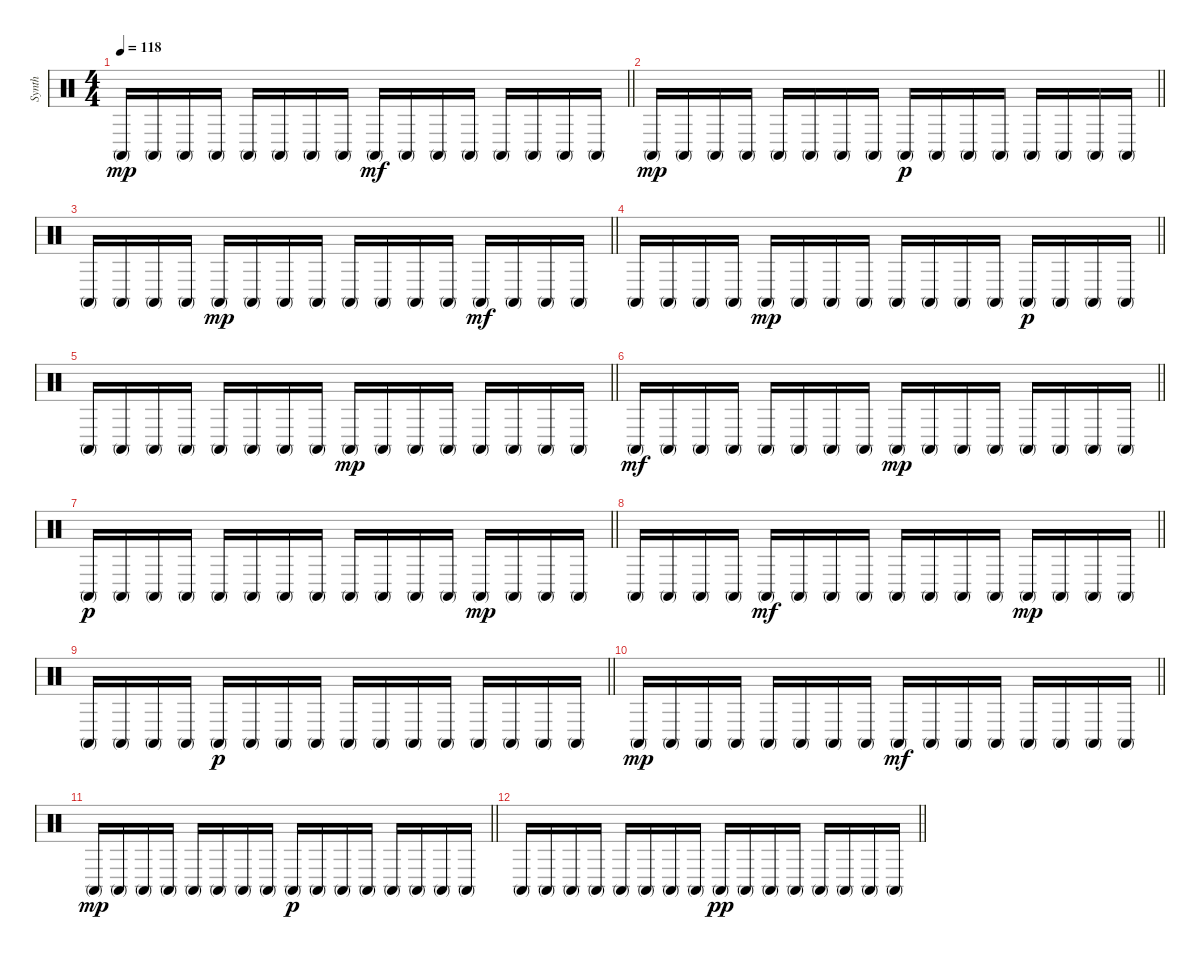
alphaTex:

\track ("Synth" "Synth") {instrument percussion}
\staff {score}
\articulation defaults
\ts (4 4)
\tempo 118
\clef neutral
\barLineRight lightlight
\ks c "Conga high (mute)".16{dy mp} "Conga high (mute)".16 "Conga high (mute)".16 "Conga high (mute)".16 "Conga high (mute)".16 "Conga high (mute)".16 "Conga high (mute)".16 "Conga high (mute)".16 "Conga high (mute)".16{dy mf} "Conga high (mute)".16 "Conga high (mute)".16 "Conga high (mute)".16 "Conga high (mute)".16 "Conga high (mute)".16 "Conga high (mute)".16 "Conga high (mute)".16
|
\barLineRight lightlight "Conga high (mute)".16{dy mp} "Conga high (mute)".16 "Conga high (mute)".16 "Conga high (mute)".16 "Conga high (mute)".16 "Conga high (mute)".16 "Conga high (mute)".16 "Conga high (mute)".16 "Conga high (mute)".16{dy p} "Conga high (mute)".16 "Conga high (mute)".16 "Conga high (mute)".16 "Conga high (mute)".16 "Conga high (mute)".16 "Conga high (mute)".16 "Conga high (mute)".16
|
\barLineRight lightlight "Conga high (mute)".16 "Conga high (mute)".16 "Conga high (mute)".16 "Conga high (mute)".16 "Conga high (mute)".16{dy mp} "Conga high (mute)".16 "Conga high (mute)".16 "Conga high (mute)".16 "Conga high (mute)".16 "Conga high (mute)".16 "Conga high (mute)".16 "Conga high (mute)".16 "Conga high (mute)".16{dy mf} "Conga high (mute)".16 "Conga high (mute)".16 "Conga high (mute)".16
|
\barLineRight lightlight "Conga high (mute)".16 "Conga high (mute)".16 "Conga high (mute)".16 "Conga high (mute)".16 "Conga high (mute)".16{dy mp} "Conga high (mute)".16 "Conga high (mute)".16 "Conga high (mute)".16 "Conga high (mute)".16 "Conga high (mute)".16 "Conga high (mute)".16 "Conga high (mute)".16 "Conga high (mute)".16{dy p} "Conga high (mute)".16 "Conga high (mute)".16 "Conga high (mute)".16
|
\barLineRight lightlight "Conga high (mute)".16 "Conga high (mute)".16 "Conga high (mute)".16 "Conga high (mute)".16 "Conga high (mute)".16 "Conga high (mute)".16 "Conga high (mute)".16 "Conga high (mute)".16 "Conga high (mute)".16{dy mp} "Conga high (mute)".16 "Conga high (mute)".16 "Conga high (mute)".16 "Conga high (mute)".16 "Conga high (mute)".16 "Conga high (mute)".16 "Conga high (mute)".16
|
\barLineRight lightlight "Conga high (mute)".16{dy mf} "Conga high (mute)".16 "Conga high (mute)".16 "Conga high (mute)".16 "Conga high (mute)".16 "Conga high (mute)".16 "Conga high (mute)".16 "Conga high (mute)".16 "Conga high (mute)".16{dy mp} "Conga high (mute)".16 "Conga high (mute)".16 "Conga high (mute)".16 "Conga high (mute)".16 "Conga high (mute)".16 "Conga high (mute)".16 "Conga high (mute)".16
|
\barLineRight lightlight "Conga high (mute)".16{dy p} "Conga high (mute)".16 "Conga high (mute)".16 "Conga high (mute)".16 "Conga high (mute)".16 "Conga high (mute)".16 "Conga high (mute)".16 "Conga high (mute)".16 "Conga high (mute)".16 "Conga high (mute)".16 "Conga high (mute)".16 "Conga high (mute)".16 "Conga high (mute)".16{dy mp} "Conga high (mute)".16 "Conga high (mute)".16 "Conga high (mute)".16
|
\barLineRight lightlight "Conga high (mute)".16 "Conga high (mute)".16 "Conga high (mute)".16 "Conga high (mute)".16 "Conga high (mute)".16{dy mf} "Conga high (mute)".16 "Conga high (mute)".16 "Conga high (mute)".16 "Conga high (mute)".16 "Conga high (mute)".16 "Conga high (mute)".16 "Conga high (mute)".16 "Conga high (mute)".16{dy mp} "Conga high (mute)".16 "Conga high (mute)".16 "Conga high (mute)".16
|
\barLineRight lightlight "Conga high (mute)".16 "Conga high (mute)".16 "Conga high (mute)".16 "Conga high (mute)".16 "Conga high (mute)".16{dy p} "Conga high (mute)".16 "Conga high (mute)".16 "Conga high (mute)".16 "Conga high (mute)".16 "Conga high (mute)".16 "Conga high (mute)".16 "Conga high (mute)".16 "Conga high (mute)".16 "Conga high (mute)".16 "Conga high (mute)".16 "Conga high (mute)".16
|
\barLineRight lightlight "Conga high (mute)".16{dy mp} "Conga high (mute)".16 "Conga high (mute)".16 "Conga high (mute)".16 "Conga high (mute)".16 "Conga high (mute)".16 "Conga high (mute)".16 "Conga high (mute)".16 "Conga high (mute)".16{dy mf} "Conga high (mute)".16 "Conga high (mute)".16 "Conga high (mute)".16 "Conga high (mute)".16 "Conga high (mute)".16 "Conga high (mute)".16 "Conga high (mute)".16
|
\barLineRight lightlight "Conga high (mute)".16{dy mp} "Conga high (mute)".16 "Conga high (mute)".16 "Conga high (mute)".16 "Conga high (mute)".16 "Conga high (mute)".16 "Conga high (mute)".16 "Conga high (mute)".16 "Conga high (mute)".16{dy p} "Conga high (mute)".16 "Conga high (mute)".16 "Conga high (mute)".16 "Conga high (mute)".16 "Conga high (mute)".16 "Conga high (mute)".16 "Conga high (mute)".16
|
\barLineRight lightlight "Conga high (mute)".16 "Conga high (mute)".16 "Conga high (mute)".16 "Conga high (mute)".16 "Conga high (mute)".16 "Conga high (mute)".16 "Conga high (mute)".16 "Conga high (mute)".16 "Conga high (mute)".16{dy pp} "Conga high (mute)".16 "Conga high (mute)".16 "Conga high (mute)".16 "Conga high (mute)".16 "Conga high (mute)".16 "Conga high (mute)".16 "Conga high (mute)".16
